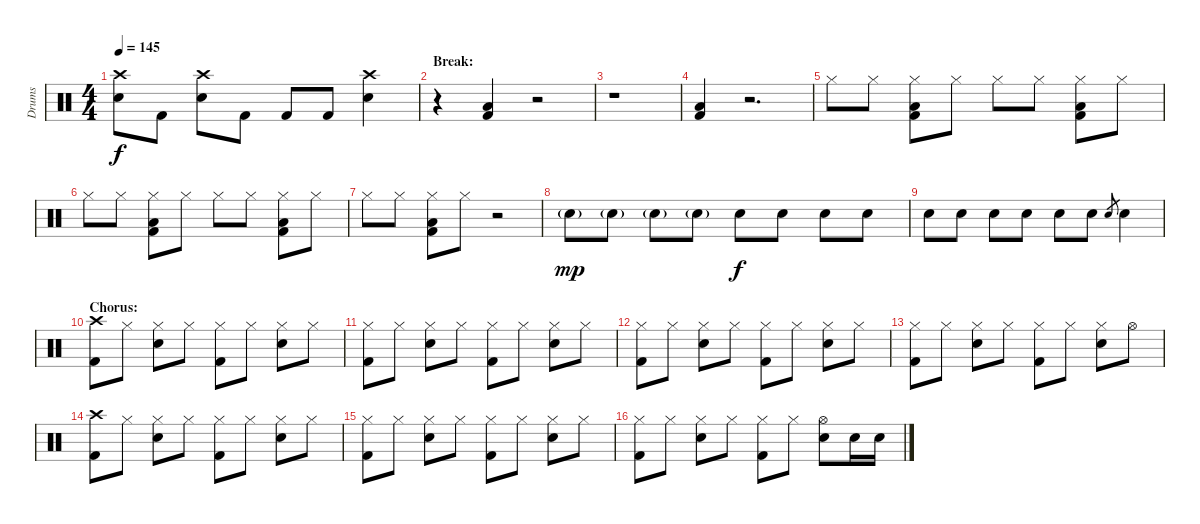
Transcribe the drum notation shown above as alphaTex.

\track ("Drums" "Drums") {instrument percussion}
\staff {score}
\articulation defaults
\ts (4 4)
\tempo 145
\clef neutral
\ks c
("Crash high (hit)" "Electric Snare (hit)").8{dy f} "Kick (hit) 2".8 ("Crash high (hit)" "Electric Snare (hit)").8 "Kick (hit) 2".8 "Kick (hit) 2".8 "Kick (hit) 2".8 ("Crash high (hit)" "Electric Snare (hit)").4 |
\section ("" "Break:")
r.4 ("Low Floor Tom (hit)" "Kick (hit) 2").4 r.2 |
r.1 |
("Low Floor Tom (hit)" "Kick (hit) 2").4 r.2{d} |
"Hi-Hat (closed)".8 "Hi-Hat (closed)".8 ("Hi-Hat (closed)" "Low Floor Tom (hit)" "Kick (hit) 2").8 "Hi-Hat (closed)".8 "Hi-Hat (closed)".8 "Hi-Hat (closed)".8 ("Hi-Hat (closed)" "Low Floor Tom (hit)" "Kick (hit) 2").8 "Hi-Hat (closed)".8 |
"Hi-Hat (closed)".8 "Hi-Hat (closed)".8 ("Hi-Hat (closed)" "Low Floor Tom (hit)" "Kick (hit) 2").8 "Hi-Hat (closed)".8 "Hi-Hat (closed)".8 "Hi-Hat (closed)".8 ("Hi-Hat (closed)" "Low Floor Tom (hit)" "Kick (hit) 2").8 "Hi-Hat (closed)".8 |
"Hi-Hat (closed)".8 "Hi-Hat (closed)".8 ("Hi-Hat (closed)" "Low Floor Tom (hit)" "Kick (hit) 2").8 "Hi-Hat (closed)".8 r.2 |
"Electric Snare (hit)"{g}.8{dy mp} "Electric Snare (hit)"{g}.8 "Electric Snare (hit)"{g}.8 "Electric Snare (hit)"{g}.8 "Electric Snare (hit)".8{dy f} "Electric Snare (hit)".8 "Electric Snare (hit)".8 "Electric Snare (hit)".8 |
"Electric Snare (hit)".8 "Electric Snare (hit)".8 "Electric Snare (hit)".8 "Electric Snare (hit)".8 "Electric Snare (hit)".8 "Electric Snare (hit)".8 "Electric Snare (hit)".8{gr} "Electric Snare (hit)".4 |
\section ("" "Chorus:")
("Crash high (hit)" "Kick (hit) 2").8 "Hi-Hat (closed)".8 ("Hi-Hat (closed)" "Electric Snare (hit)").8 "Hi-Hat (closed)".8 ("Hi-Hat (closed)" "Kick (hit) 2").8 "Hi-Hat (closed)".8 ("Hi-Hat (closed)" "Electric Snare (hit)").8 "Hi-Hat (closed)".8 |
("Hi-Hat (closed)" "Kick (hit) 2").8 "Hi-Hat (closed)".8 ("Hi-Hat (closed)" "Electric Snare (hit)").8 "Hi-Hat (closed)".8 ("Hi-Hat (closed)" "Kick (hit) 2").8 "Hi-Hat (closed)".8 ("Hi-Hat (closed)" "Electric Snare (hit)").8 "Hi-Hat (closed)".8 |
("Hi-Hat (closed)" "Kick (hit) 2").8 "Hi-Hat (closed)".8 ("Hi-Hat (closed)" "Electric Snare (hit)").8 "Hi-Hat (closed)".8 ("Hi-Hat (closed)" "Kick (hit) 2").8 "Hi-Hat (closed)".8 ("Hi-Hat (closed)" "Electric Snare (hit)").8 "Hi-Hat (closed)".8 |
("Hi-Hat (closed)" "Kick (hit) 2").8 "Hi-Hat (closed)".8 ("Hi-Hat (closed)" "Electric Snare (hit)").8 "Hi-Hat (closed)".8 ("Hi-Hat (closed)" "Kick (hit) 2").8 "Hi-Hat (closed)".8 ("Hi-Hat (closed)" "Electric Snare (hit)").8 "Hi-Hat (open)".8 |
("Crash high (hit)" "Kick (hit) 2").8 "Hi-Hat (closed)".8 ("Hi-Hat (closed)" "Electric Snare (hit)").8 "Hi-Hat (closed)".8 ("Hi-Hat (closed)" "Kick (hit) 2").8 "Hi-Hat (closed)".8 ("Hi-Hat (closed)" "Electric Snare (hit)").8 "Hi-Hat (closed)".8 |
("Hi-Hat (closed)" "Kick (hit) 2").8 "Hi-Hat (closed)".8 ("Hi-Hat (closed)" "Electric Snare (hit)").8 "Hi-Hat (closed)".8 ("Hi-Hat (closed)" "Kick (hit) 2").8 "Hi-Hat (closed)".8 ("Hi-Hat (closed)" "Electric Snare (hit)").8 "Hi-Hat (closed)".8 |
("Hi-Hat (closed)" "Kick (hit) 2").8 "Hi-Hat (closed)".8 ("Hi-Hat (closed)" "Electric Snare (hit)").8 "Hi-Hat (closed)".8 ("Hi-Hat (closed)" "Kick (hit) 2").8 "Hi-Hat (closed)".8 ("Hi-Hat (open)" "Electric Snare (hit)").8 "Electric Snare (hit)".16 "Electric Snare (hit)".16
